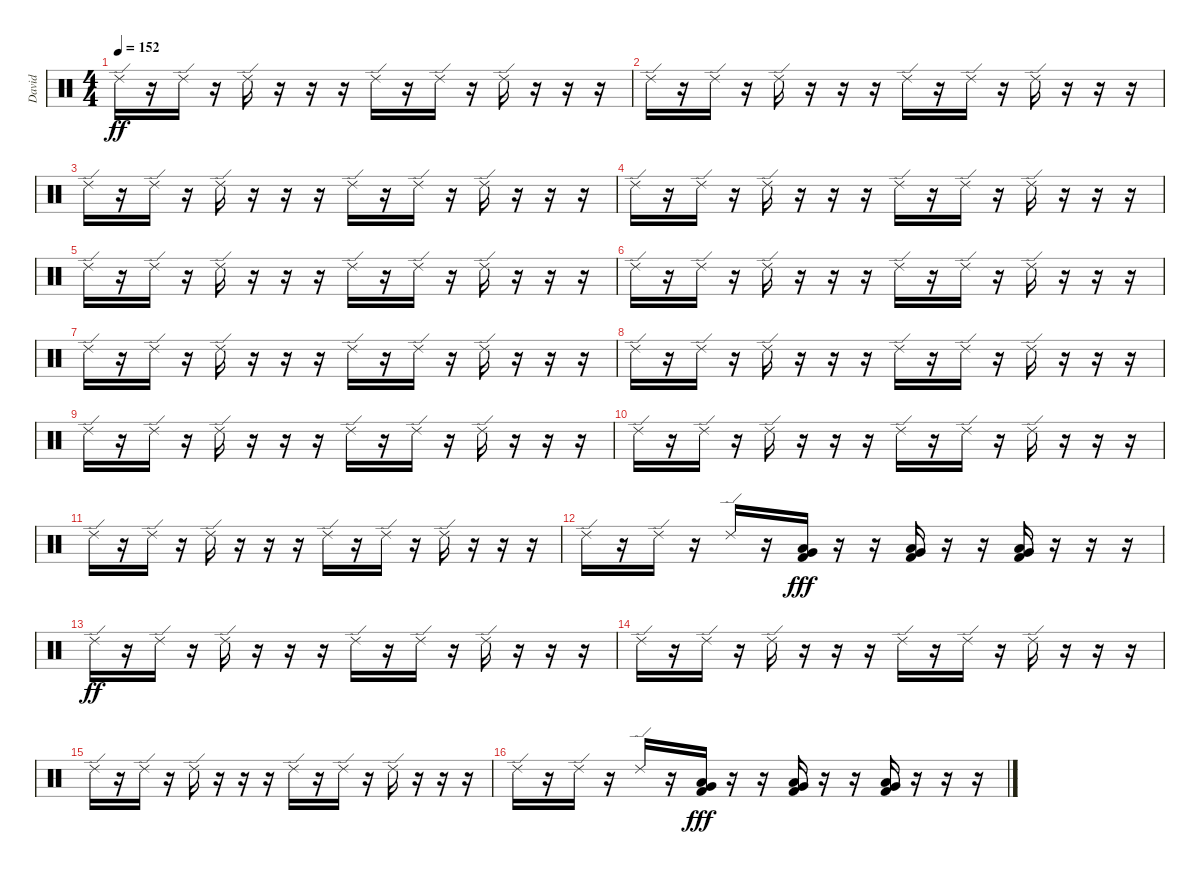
\track ("David" "David") {instrument percussion}
\staff {score}
\articulation defaults
\ts (4 4)
\tempo 152
\clef neutral
\ks c "Ride (edge) 2".16{dy ff}
r.16 "Ride (edge) 2".16 r.16 "Ride (edge) 2".16 r.16 r.16 r.16 "Ride (edge) 2".16 r.16 "Ride (edge) 2".16 r.16 "Ride (edge) 2".16 r.16 r.16 r.16 |
"Ride (edge) 2".16 r.16 "Ride (edge) 2".16 r.16 "Ride (edge) 2".16 r.16 r.16 r.16 "Ride (edge) 2".16 r.16 "Ride (edge) 2".16 r.16 "Ride (edge) 2".16 r.16 r.16 r.16 |
"Ride (edge) 2".16 r.16 "Ride (edge) 2".16 r.16 "Ride (edge) 2".16 r.16 r.16 r.16 "Ride (edge) 2".16 r.16 "Ride (edge) 2".16 r.16 "Ride (edge) 2".16 r.16 r.16 r.16 |
"Ride (edge) 2".16 r.16 "Ride (edge) 2".16 r.16 "Ride (edge) 2".16 r.16 r.16 r.16 "Ride (edge) 2".16 r.16 "Ride (edge) 2".16 r.16 "Ride (edge) 2".16 r.16 r.16 r.16 |
"Ride (edge) 2".16 r.16 "Ride (edge) 2".16 r.16 "Ride (edge) 2".16 r.16 r.16 r.16 "Ride (edge) 2".16 r.16 "Ride (edge) 2".16 r.16 "Ride (edge) 2".16 r.16 r.16 r.16 |
"Ride (edge) 2".16 r.16 "Ride (edge) 2".16 r.16 "Ride (edge) 2".16 r.16 r.16 r.16 "Ride (edge) 2".16 r.16 "Ride (edge) 2".16 r.16 "Ride (edge) 2".16 r.16 r.16 r.16 |
"Ride (edge) 2".16 r.16 "Ride (edge) 2".16 r.16 "Ride (edge) 2".16 r.16 r.16 r.16 "Ride (edge) 2".16 r.16 "Ride (edge) 2".16 r.16 "Ride (edge) 2".16 r.16 r.16 r.16 |
"Ride (edge) 2".16 r.16 "Ride (edge) 2".16 r.16 "Ride (edge) 2".16 r.16 r.16 r.16 "Ride (edge) 2".16 r.16 "Ride (edge) 2".16 r.16 "Ride (edge) 2".16 r.16 r.16 r.16 |
"Ride (edge) 2".16 r.16 "Ride (edge) 2".16 r.16 "Ride (edge) 2".16 r.16 r.16 r.16 "Ride (edge) 2".16 r.16 "Ride (edge) 2".16 r.16 "Ride (edge) 2".16 r.16 r.16 r.16 |
"Ride (edge) 2".16 r.16 "Ride (edge) 2".16 r.16 "Ride (edge) 2".16 r.16 r.16 r.16 "Ride (edge) 2".16 r.16 "Ride (edge) 2".16 r.16 "Ride (edge) 2".16 r.16 r.16 r.16 |
"Ride (edge) 2".16 r.16 "Ride (edge) 2".16 r.16 "Ride (edge) 2".16 r.16 r.16 r.16 "Ride (edge) 2".16 r.16 "Ride (edge) 2".16 r.16 "Ride (edge) 2".16 r.16 r.16 r.16 |
"Ride (edge) 2".16 r.16 "Ride (edge) 2".16 r.16 "Ride (edge) 2".16 r.16 ("Very Low Tom (hit)" "Low Floor Tom (hit)" "Kick (hit) 2").16{dy fff} r.16 r.16 ("Very Low Tom (hit)" "Low Floor Tom (hit)" "Kick (hit) 2").16 r.16 r.16 ("Very Low Tom (hit)" "Low Floor Tom (hit)" "Kick (hit) 2").16 r.16 r.16 r.16 |
"Ride (edge) 2".16{dy ff} r.16 "Ride (edge) 2".16 r.16 "Ride (edge) 2".16 r.16 r.16 r.16 "Ride (edge) 2".16 r.16 "Ride (edge) 2".16 r.16 "Ride (edge) 2".16 r.16 r.16 r.16 |
"Ride (edge) 2".16 r.16 "Ride (edge) 2".16 r.16 "Ride (edge) 2".16 r.16 r.16 r.16 "Ride (edge) 2".16 r.16 "Ride (edge) 2".16 r.16 "Ride (edge) 2".16 r.16 r.16 r.16 |
"Ride (edge) 2".16 r.16 "Ride (edge) 2".16 r.16 "Ride (edge) 2".16 r.16 r.16 r.16 "Ride (edge) 2".16 r.16 "Ride (edge) 2".16 r.16 "Ride (edge) 2".16 r.16 r.16 r.16 |
"Ride (edge) 2".16 r.16 "Ride (edge) 2".16 r.16 "Ride (edge) 2".16 r.16 ("Very Low Tom (hit)" "Low Floor Tom (hit)" "Kick (hit) 2").16{dy fff} r.16 r.16 ("Very Low Tom (hit)" "Low Floor Tom (hit)" "Kick (hit) 2").16 r.16 r.16 ("Very Low Tom (hit)" "Low Floor Tom (hit)" "Kick (hit) 2").16 r.16 r.16 r.16
